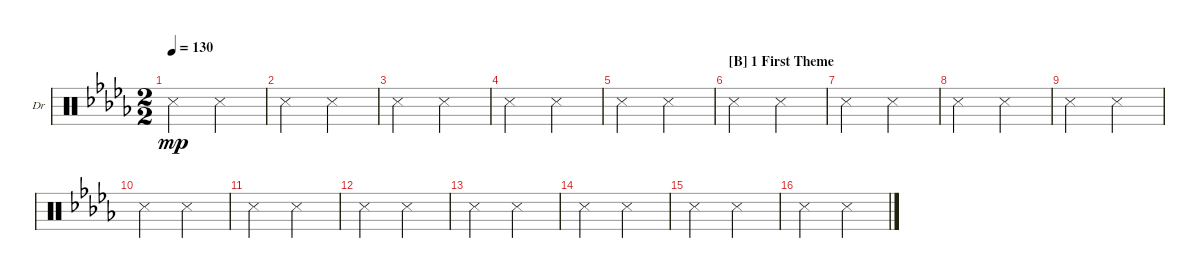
\defaultSystemsLayout 4
\bracketExtendMode nobrackets
\firstSystemTrackNameOrientation horizontal
\otherSystemsTrackNameOrientation horizontal
\chordDiagramsInScore
\track ("Drums" "Dr") {instrument percussion}
\staff {score}
\articulation defaults
\ts (2 2)
\tempo 130
\clef neutral
\scale
0.333333
\ks db "Snare (side stick) 3".2{dy mp} "Snare (side stick) 3".2
|
\scale
0.333333 "Snare (side stick) 3".2 "Snare (side stick) 3".2 |
\scale
0.333333 "Snare (side stick) 3".2 "Snare (side stick) 3".2 |
\scale
0.333333 "Snare (side stick) 3".2 "Snare (side stick) 3".2 |
\scale
0.333333 "Snare (side stick) 3".2 "Snare (side stick) 3".2 |
\section ("B" "1 First Theme")
\scale
0.333333 "Snare (side stick) 3".2 "Snare (side stick) 3".2 |
\scale
0.333333 "Snare (side stick) 3".2 "Snare (side stick) 3".2 |
\scale
0.333333 "Snare (side stick) 3".2 "Snare (side stick) 3".2 |
\scale
0.333333 "Snare (side stick) 3".2 "Snare (side stick) 3".2 |
\scale
0.333333 "Snare (side stick) 3".2 "Snare (side stick) 3".2 |
\scale
0.333333 "Snare (side stick) 3".2 "Snare (side stick) 3".2 |
\scale
0.333333 "Snare (side stick) 3".2 "Snare (side stick) 3".2 |
\scale
0.333333 "Snare (side stick) 3".2 "Snare (side stick) 3".2 |
\scale
0.333333 "Snare (side stick) 3".2 "Snare (side stick) 3".2 |
\scale
0.333333 "Snare (side stick) 3".2 "Snare (side stick) 3".2 |
\scale
0.333333 "Snare (side stick) 3".2 "Snare (side stick) 3".2
